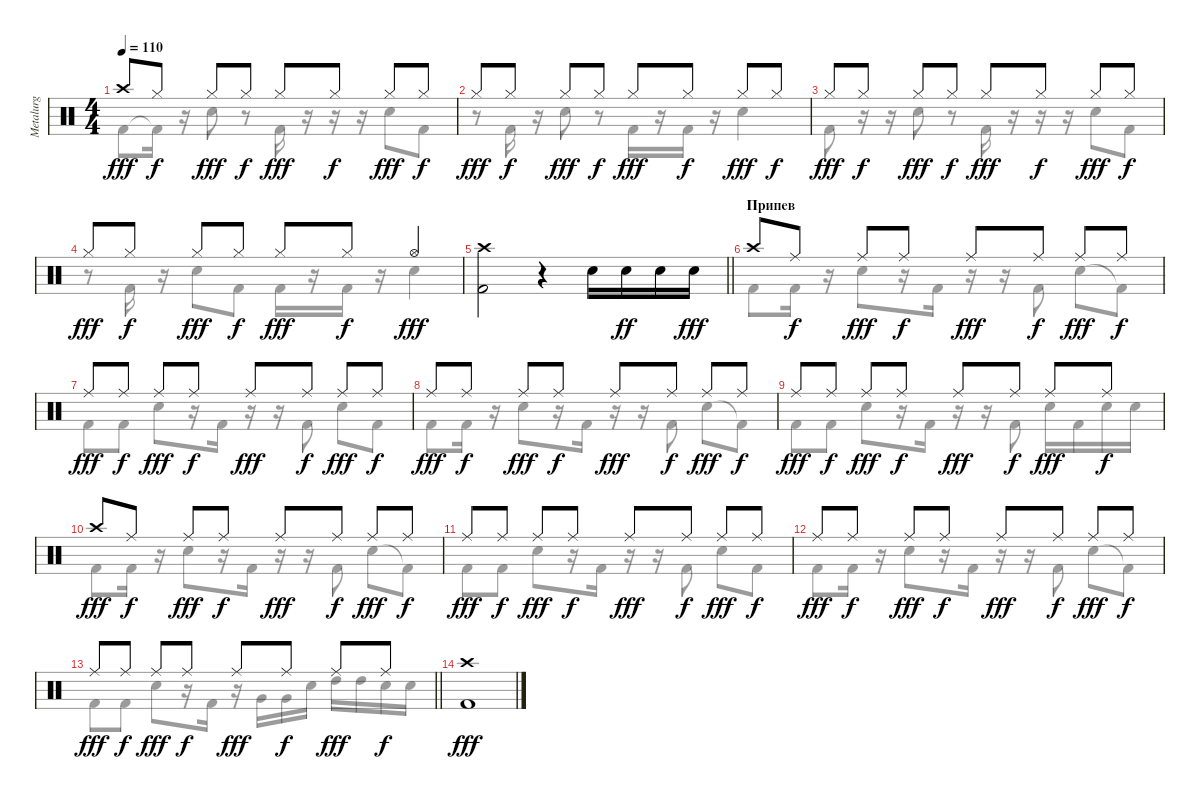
\track ("Metalurg" "Metalurg") {instrument percussion}
\staff {score}
\articulation defaults
\voice
\ts (4 4)
\tempo 110
\clef neutral
\ks c "Crash high (hit)".8{dy fff} "Hi-Hat (closed)".8{dy f} "Hi-Hat (closed)".8{dy fff} "Hi-Hat (closed)".8{dy f} "Hi-Hat (closed)".8{dy fff} "Hi-Hat (closed)".8{dy f} "Hi-Hat (closed)".8{dy fff} "Hi-Hat (closed)".8{dy f}
|
"Hi-Hat (closed)".8{dy fff} "Hi-Hat (closed)".8{dy f} "Hi-Hat (closed)".8{dy fff} "Hi-Hat (closed)".8{dy f} "Hi-Hat (closed)".8{dy fff} "Hi-Hat (closed)".8{dy f} "Hi-Hat (closed)".8{dy fff} "Hi-Hat (closed)".8{dy f} |
"Hi-Hat (closed)".8{dy fff} "Hi-Hat (closed)".8{dy f} "Hi-Hat (closed)".8{dy fff} "Hi-Hat (closed)".8{dy f} "Hi-Hat (closed)".8{dy fff} "Hi-Hat (closed)".8{dy f} "Hi-Hat (closed)".8{dy fff} "Hi-Hat (closed)".8{dy f} |
"Hi-Hat (closed)".8{dy fff} "Hi-Hat (closed)".8{dy f} "Hi-Hat (closed)".8{dy fff} "Hi-Hat (closed)".8{dy f} "Hi-Hat (closed)".8{dy fff} "Hi-Hat (closed)".8{dy f} "Hi-Hat (open)".4{dy fff} |
\barLineRight lightlight
("Crash high (hit)" "Kick (hit) 2").2 r.4 "Snare (hit) 2".16 "Snare (hit) 2".16{dy ff} "Snare (hit) 2".16 "Snare (hit) 2".16{dy fff} |
\section ("" "Припев")
"Crash high (hit)".8 "Ride (middle)".8{dy f} "Ride (middle)".8{dy fff} "Ride (middle)".8{dy f} "Ride (middle)".8{dy fff} "Ride (middle)".8{dy f} "Ride (middle)".8{dy fff} "Ride (middle)".8{dy f} |
"Ride (middle)".8{dy fff} "Ride (middle)".8{dy f} "Ride (middle)".8{dy fff} "Ride (middle)".8{dy f} "Ride (middle)".8{dy fff} "Ride (middle)".8{dy f} "Ride (middle)".8{dy fff} "Ride (middle)".8{dy f} |
"Ride (middle)".8{dy fff} "Ride (middle)".8{dy f} "Ride (middle)".8{dy fff} "Ride (middle)".8{dy f} "Ride (middle)".8{dy fff} "Ride (middle)".8{dy f} "Ride (middle)".8{dy fff} "Ride (middle)".8{dy f} |
"Ride (middle)".8{dy fff} "Ride (middle)".8{dy f} "Ride (middle)".8{dy fff} "Ride (middle)".8{dy f} "Ride (middle)".8{dy fff} "Ride (middle)".8{dy f} "Ride (middle)".8{dy fff} "Ride (middle)".8{dy f} |
"Crash high (hit)".8{dy fff} "Ride (middle)".8{dy f} "Ride (middle)".8{dy fff} "Ride (middle)".8{dy f} "Ride (middle)".8{dy fff} "Ride (middle)".8{dy f} "Ride (middle)".8{dy fff} "Ride (middle)".8{dy f} |
"Ride (middle)".8{dy fff} "Ride (middle)".8{dy f} "Ride (middle)".8{dy fff} "Ride (middle)".8{dy f} "Ride (middle)".8{dy fff} "Ride (middle)".8{dy f} "Ride (middle)".8{dy fff} "Ride (middle)".8{dy f} |
"Ride (middle)".8{dy fff} "Ride (middle)".8{dy f} "Ride (middle)".8{dy fff} "Ride (middle)".8{dy f} "Ride (middle)".8{dy fff} "Ride (middle)".8{dy f} "Ride (middle)".8{dy fff} "Ride (middle)".8{dy f} |
\barLineRight lightlight "Ride (middle)".8{dy fff} "Ride (middle)".8{dy f} "Ride (middle)".8{dy fff} "Ride (middle)".8{dy f} "Ride (middle)".8{dy fff} "Ride (middle)".8{dy f} "Ride (middle)".8{dy fff} "Ride (middle)".8{dy f}
|
("Crash high (hit)" "Kick (hit) 2").1{dy fff} |
|
\voice
\clef neutral
\ottava regular
\simile none
\ks c "Kick (hit) 2".8{dy fff} "Kick (hit) 2"{t}.16
r.16 "Snare (hit) 2".8 r.8 "Kick (hit) 2".16 r.16 r.16 r.16 "Snare (hit) 2".8 "Kick (hit) 2".8 |
r.8 "Kick (hit) 2".16 r.16 "Snare (hit) 2".8 r.8 "Kick (hit) 2".16 r.16 "Kick (hit) 2".16 r.16 "Snare (hit) 2".4 |
"Kick (hit) 2".8 r.16 r.16 "Snare (hit) 2".8 r.8 "Kick (hit) 2".16 r.16 r.16 r.16 "Snare (hit) 2".8 "Kick (hit) 2".8 |
r.8 "Kick (hit) 2".16 r.16 "Snare (hit) 2".8 "Kick (hit) 2".8 "Kick (hit) 2".16 r.16 "Kick (hit) 2".16 r.16 "Snare (hit) 2".4 |
\barLineRight lightlight
|
"Kick (hit) 2".8 "Kick (hit) 2".16 r.16 "Snare (hit) 2".8 r.16 "Kick (hit) 2".16 r.16 r.16 "Kick (hit) 2".8 "Snare (hit) 2".8 "Kick (hit) 2"{t}.8 |
"Kick (hit) 2".8 "Kick (hit) 2".8 "Snare (hit) 2".8 r.16 "Kick (hit) 2".16 r.16 r.16 "Kick (hit) 2".8 "Snare (hit) 2".8 "Kick (hit) 2".8 |
"Kick (hit) 2".8 "Kick (hit) 2".16 r.16 "Snare (hit) 2".8 r.16 "Kick (hit) 2".16 r.16 r.16 "Kick (hit) 2".8 "Snare (hit) 2".8 "Kick (hit) 2"{t}.8 |
"Kick (hit) 2".8 "Kick (hit) 2".8 "Snare (hit) 2".8 r.16 "Kick (hit) 2".16 r.16 r.16 "Kick (hit) 2".8 "Snare (hit) 2".16 "Kick (hit) 2".16 "Snare (hit) 2".16 "Snare (hit) 2".16 |
"Kick (hit) 2".8 "Kick (hit) 2".16 r.16 "Snare (hit) 2".8 r.16 "Kick (hit) 2".16 r.16 r.16 "Kick (hit) 2".8 "Snare (hit) 2".8 "Kick (hit) 2"{t}.8 |
"Kick (hit) 2".8 "Kick (hit) 2".8 "Snare (hit) 2".8 r.16 "Kick (hit) 2".16 r.16 r.16 "Kick (hit) 2".8 "Snare (hit) 2".8 "Kick (hit) 2".8 |
"Kick (hit) 2".8 "Kick (hit) 2".16 r.16 "Snare (hit) 2".8 r.16 "Kick (hit) 2".16 r.16 r.16 "Kick (hit) 2".8 "Snare (hit) 2".8 "Kick (hit) 2"{t}.8 |
\barLineRight lightlight "Kick (hit) 2".8 "Kick (hit) 2".8 "Snare (hit) 2".8
r.16 "Kick (hit) 2".16 r.16 "Very Low Tom (hit)".16 "Very Low Tom (hit)".16 "Snare (hit) 2".16 "High Tom (hit)".16 "High Tom (hit)".16 "Snare (hit) 2".16 "Snare (hit) 2".16 |
|
|
